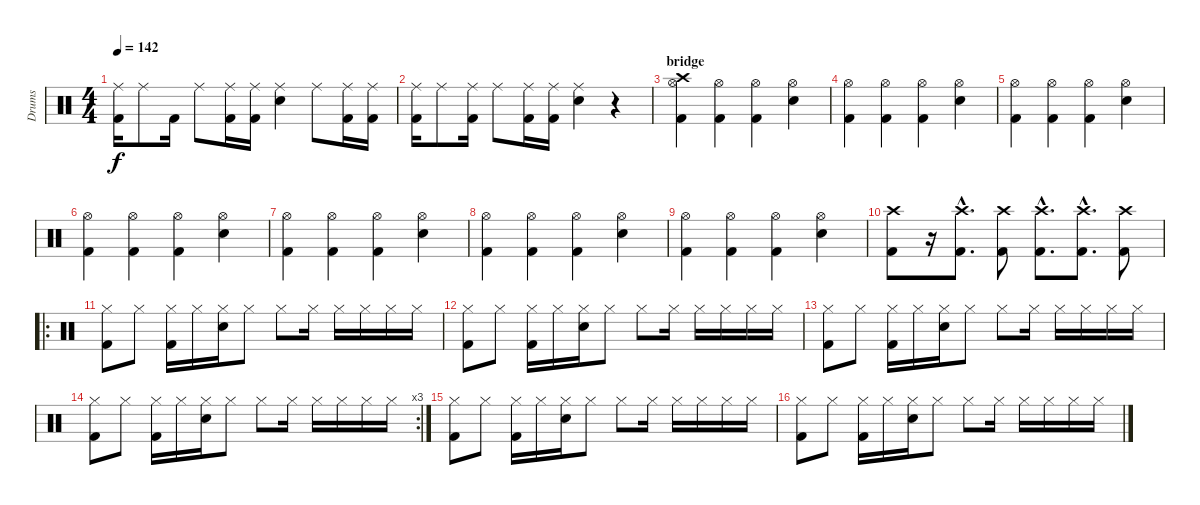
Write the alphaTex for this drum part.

\track ("Drums" "Drums") {instrument percussion}
\staff {score}
\articulation defaults
\ts (4 4)
\tempo 142
\clef neutral
\ks c
("Kick (hit) 2" "Ride (middle)").16{dy f} "Ride (middle)".8 "Kick (hit) 2".16 "Ride (middle)".8 ("Kick (hit) 2" "Ride (middle)").16 ("Kick (hit) 2" "Ride (middle)").16 ("Snare (hit) 2" "Ride (middle)").4 "Ride (middle)".8 ("Kick (hit) 2" "Ride (middle)").16 ("Kick (hit) 2" "Ride (middle)").16 |
("Kick (hit) 2" "Ride (middle)").16 "Ride (middle)".8 ("Kick (hit) 2" "Ride (middle)").16 "Ride (middle)".8 ("Kick (hit) 2" "Ride (middle)").16 ("Kick (hit) 2" "Ride (middle)").16 ("Snare (hit) 2" "Ride (middle)").4 r.4 |
\section ("" "bridge")
("Kick (hit) 2" "Hi-Hat (open)" "Crash high (hit)").4 ("Kick (hit) 2" "Hi-Hat (open)").4 ("Kick (hit) 2" "Hi-Hat (open)").4 ("Snare (hit) 2" "Hi-Hat (open)").4 |
("Kick (hit) 2" "Hi-Hat (open)").4 ("Kick (hit) 2" "Hi-Hat (open)").4 ("Kick (hit) 2" "Hi-Hat (open)").4 ("Snare (hit) 2" "Hi-Hat (open)").4 |
("Kick (hit) 2" "Hi-Hat (open)").4 ("Kick (hit) 2" "Hi-Hat (open)").4 ("Kick (hit) 2" "Hi-Hat (open)").4 ("Snare (hit) 2" "Hi-Hat (open)").4 |
("Kick (hit) 2" "Hi-Hat (open)").4 ("Kick (hit) 2" "Hi-Hat (open)").4 ("Kick (hit) 2" "Hi-Hat (open)").4 ("Snare (hit) 2" "Hi-Hat (open)").4 |
("Kick (hit) 2" "Hi-Hat (open)").4 ("Kick (hit) 2" "Hi-Hat (open)").4 ("Kick (hit) 2" "Hi-Hat (open)").4 ("Snare (hit) 2" "Hi-Hat (open)").4 |
("Kick (hit) 2" "Hi-Hat (open)").4 ("Kick (hit) 2" "Hi-Hat (open)").4 ("Kick (hit) 2" "Hi-Hat (open)").4 ("Snare (hit) 2" "Hi-Hat (open)").4 |
("Kick (hit) 2" "Hi-Hat (open)").4 ("Kick (hit) 2" "Hi-Hat (open)").4 ("Kick (hit) 2" "Hi-Hat (open)").4 ("Snare (hit) 2" "Hi-Hat (open)").4 |
("Kick (hit) 2" "Crash high (hit)").8 r.16 ("Kick (hit) 2"{hac} "Crash high (hit)"{hac}).8{d} ("Kick (hit) 2" "Crash high (hit)").8 ("Kick (hit) 2"{hac} "Crash high (hit)"{hac}).8{d} ("Kick (hit) 2"{hac} "Crash high (hit)"{hac}).8{d} ("Kick (hit) 2" "Crash high (hit)").8 |
\ro
("Kick (hit) 2" "Hi-Hat (closed)").8 "Hi-Hat (closed)".8 ("Kick (hit) 2" "Hi-Hat (closed)").16 "Hi-Hat (closed)".16 ("Snare (hit) 2" "Hi-Hat (closed)").16 "Hi-Hat (closed)".8 "Hi-Hat (closed)".8 "Hi-Hat (closed)".16 "Hi-Hat (closed)".16 "Hi-Hat (closed)".16 "Hi-Hat (closed)".16 "Hi-Hat (closed)".16 |
("Kick (hit) 2" "Hi-Hat (closed)").8 "Hi-Hat (closed)".8 ("Kick (hit) 2" "Hi-Hat (closed)").16 "Hi-Hat (closed)".16 ("Snare (hit) 2" "Hi-Hat (closed)").16 "Hi-Hat (closed)".8 "Hi-Hat (closed)".8 "Hi-Hat (closed)".16 "Hi-Hat (closed)".16 "Hi-Hat (closed)".16 "Hi-Hat (closed)".16 "Hi-Hat (closed)".16 |
("Kick (hit) 2" "Hi-Hat (closed)").8 "Hi-Hat (closed)".8 ("Kick (hit) 2" "Hi-Hat (closed)").16 "Hi-Hat (closed)".16 ("Snare (hit) 2" "Hi-Hat (closed)").16 "Hi-Hat (closed)".8 "Hi-Hat (closed)".8 "Hi-Hat (closed)".16 "Hi-Hat (closed)".16 "Hi-Hat (closed)".16 "Hi-Hat (closed)".16 "Hi-Hat (closed)".16 |
\rc 3
("Kick (hit) 2" "Hi-Hat (closed)").8 "Hi-Hat (closed)".8 ("Kick (hit) 2" "Hi-Hat (closed)").16 "Hi-Hat (closed)".16 ("Snare (hit) 2" "Hi-Hat (closed)").16 "Hi-Hat (closed)".8 "Hi-Hat (closed)".8 "Hi-Hat (closed)".16 "Hi-Hat (closed)".16 "Hi-Hat (closed)".16 "Hi-Hat (closed)".16 "Hi-Hat (closed)".16 |
("Kick (hit) 2" "Hi-Hat (closed)").8 "Hi-Hat (closed)".8 ("Kick (hit) 2" "Hi-Hat (closed)").16 "Hi-Hat (closed)".16 ("Snare (hit) 2" "Hi-Hat (closed)").16 "Hi-Hat (closed)".8 "Hi-Hat (closed)".8 "Hi-Hat (closed)".16 "Hi-Hat (closed)".16 "Hi-Hat (closed)".16 "Hi-Hat (closed)".16 "Hi-Hat (closed)".16 |
("Kick (hit) 2" "Hi-Hat (closed)").8 "Hi-Hat (closed)".8 ("Kick (hit) 2" "Hi-Hat (closed)").16 "Hi-Hat (closed)".16 ("Snare (hit) 2" "Hi-Hat (closed)").16 "Hi-Hat (closed)".8 "Hi-Hat (closed)".8 "Hi-Hat (closed)".16 "Hi-Hat (closed)".16 "Hi-Hat (closed)".16 "Hi-Hat (closed)".16 "Hi-Hat (closed)".16
